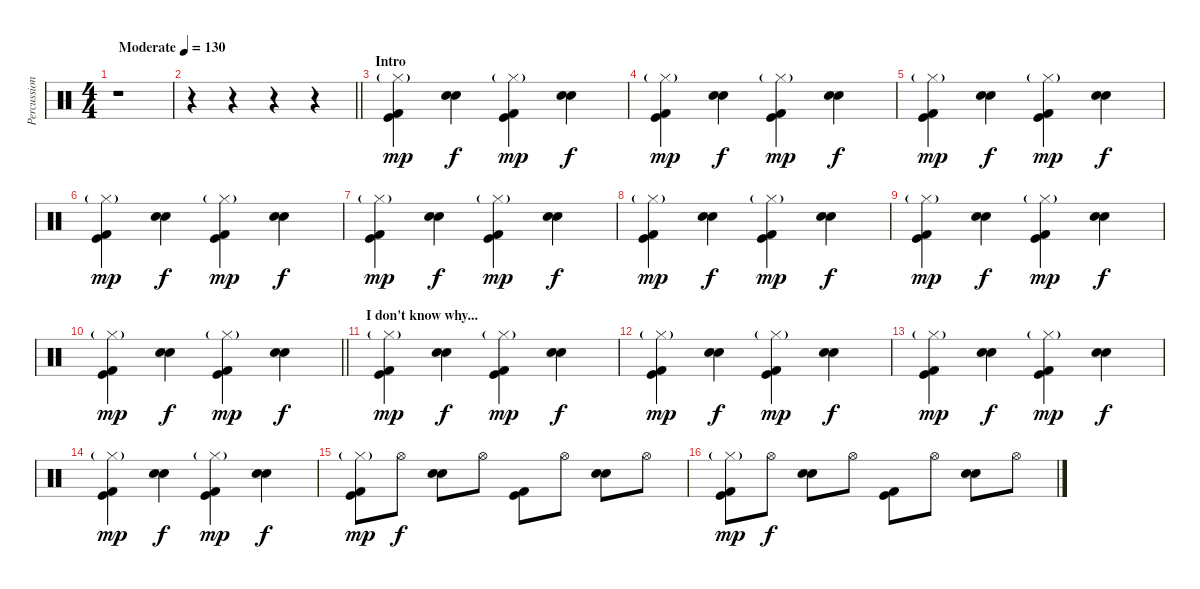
\track ("Percussion" "Percussion") {instrument percussion}
\staff {score}
\articulation defaults
\ts (4 4)
\tempo (130 "Moderate")
\clef neutral
\ks c
r.1{dy mp} |
\barLineRight lightlight
r.4 r.4 r.4 r.4 |
\section ("" "Intro")
("Kick (hit) 2" "Kick (hit)" "Hi-Hat (closed)"{g}).4 ("Electric Snare (hit)" "Snare (hit) 2").4{dy f} ("Kick (hit) 2" "Kick (hit)" "Hi-Hat (closed)"{g}).4{dy mp} ("Electric Snare (hit)" "Snare (hit) 2").4{dy f} |
("Kick (hit) 2" "Kick (hit)" "Hi-Hat (closed)"{g}).4{dy mp} ("Electric Snare (hit)" "Snare (hit) 2").4{dy f} ("Kick (hit) 2" "Kick (hit)" "Hi-Hat (closed)"{g}).4{dy mp} ("Electric Snare (hit)" "Snare (hit) 2").4{dy f} |
("Kick (hit) 2" "Kick (hit)" "Hi-Hat (closed)"{g}).4{dy mp} ("Electric Snare (hit)" "Snare (hit) 2").4{dy f} ("Kick (hit) 2" "Kick (hit)" "Hi-Hat (closed)"{g}).4{dy mp} ("Electric Snare (hit)" "Snare (hit) 2").4{dy f} |
("Kick (hit) 2" "Kick (hit)" "Hi-Hat (closed)"{g}).4{dy mp} ("Electric Snare (hit)" "Snare (hit) 2").4{dy f} ("Kick (hit) 2" "Kick (hit)" "Hi-Hat (closed)"{g}).4{dy mp} ("Electric Snare (hit)" "Snare (hit) 2").4{dy f} |
("Kick (hit) 2" "Kick (hit)" "Hi-Hat (closed)"{g}).4{dy mp} ("Electric Snare (hit)" "Snare (hit) 2").4{dy f} ("Kick (hit) 2" "Kick (hit)" "Hi-Hat (closed)"{g}).4{dy mp} ("Electric Snare (hit)" "Snare (hit) 2").4{dy f} |
("Kick (hit) 2" "Kick (hit)" "Hi-Hat (closed)"{g}).4{dy mp} ("Electric Snare (hit)" "Snare (hit) 2").4{dy f} ("Kick (hit) 2" "Kick (hit)" "Hi-Hat (closed)"{g}).4{dy mp} ("Electric Snare (hit)" "Snare (hit) 2").4{dy f} |
("Kick (hit) 2" "Kick (hit)" "Hi-Hat (closed)"{g}).4{dy mp} ("Electric Snare (hit)" "Snare (hit) 2").4{dy f} ("Kick (hit) 2" "Kick (hit)" "Hi-Hat (closed)"{g}).4{dy mp} ("Electric Snare (hit)" "Snare (hit) 2").4{dy f} |
\barLineRight lightlight
("Kick (hit) 2" "Kick (hit)" "Hi-Hat (closed)"{g}).4{dy mp} ("Electric Snare (hit)" "Snare (hit) 2").4{dy f} ("Kick (hit) 2" "Kick (hit)" "Hi-Hat (closed)"{g}).4{dy mp} ("Electric Snare (hit)" "Snare (hit) 2").4{dy f} |
\section ("" "I don't know why...")
("Kick (hit) 2" "Kick (hit)" "Hi-Hat (closed)"{g}).4{dy mp} ("Electric Snare (hit)" "Snare (hit) 2").4{dy f} ("Kick (hit) 2" "Kick (hit)" "Hi-Hat (closed)"{g}).4{dy mp} ("Electric Snare (hit)" "Snare (hit) 2").4{dy f} |
("Kick (hit) 2" "Kick (hit)" "Hi-Hat (closed)"{g}).4{dy mp} ("Electric Snare (hit)" "Snare (hit) 2").4{dy f} ("Kick (hit) 2" "Kick (hit)" "Hi-Hat (closed)"{g}).4{dy mp} ("Electric Snare (hit)" "Snare (hit) 2").4{dy f} |
("Kick (hit) 2" "Kick (hit)" "Hi-Hat (closed)"{g}).4{dy mp} ("Electric Snare (hit)" "Snare (hit) 2").4{dy f} ("Kick (hit) 2" "Kick (hit)" "Hi-Hat (closed)"{g}).4{dy mp} ("Electric Snare (hit)" "Snare (hit) 2").4{dy f} |
("Kick (hit) 2" "Kick (hit)" "Hi-Hat (closed)"{g}).4{dy mp} ("Electric Snare (hit)" "Snare (hit) 2").4{dy f} ("Kick (hit) 2" "Kick (hit)" "Hi-Hat (closed)"{g}).4{dy mp} ("Electric Snare (hit)" "Snare (hit) 2").4{dy f} |
("Kick (hit) 2" "Kick (hit)" "Hi-Hat (closed)"{g}).8{dy mp} "Hi-Hat (open)".8{dy f} ("Electric Snare (hit)" "Snare (hit) 2").8 "Hi-Hat (open)".8 ("Kick (hit) 2" "Kick (hit)").8 "Hi-Hat (open)".8 ("Electric Snare (hit)" "Snare (hit) 2").8 "Hi-Hat (open)".8 |
("Kick (hit) 2" "Kick (hit)" "Hi-Hat (closed)"{g}).8{dy mp} "Hi-Hat (open)".8{dy f} ("Electric Snare (hit)" "Snare (hit) 2").8 "Hi-Hat (open)".8 ("Kick (hit) 2" "Kick (hit)").8 "Hi-Hat (open)".8 ("Electric Snare (hit)" "Snare (hit) 2").8 "Hi-Hat (open)".8
